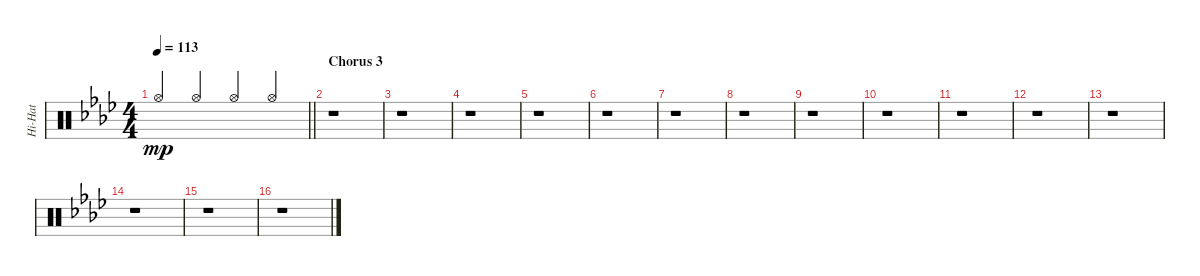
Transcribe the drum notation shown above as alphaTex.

\track ("Hi-Hat" "Hi-Hat") {instrument percussion}
\staff {score}
\articulation defaults
\ts (4 4)
\tempo 113
\clef neutral
\barLineRight lightlight
\ks fminor "Hi-Hat (open)".4{dy mp beam Up} "Hi-Hat (open)".4{beam Up} "Hi-Hat (open)".4{beam Up} "Hi-Hat (open)".4{beam Up}
|
\section ("" "Chorus 3")
r.1 |
r.1 |
r.1 |
r.1 |
r.1 |
r.1 |
r.1 |
r.1 |
r.1 |
r.1 |
r.1 |
r.1 |
r.1 |
r.1 |
r.1
